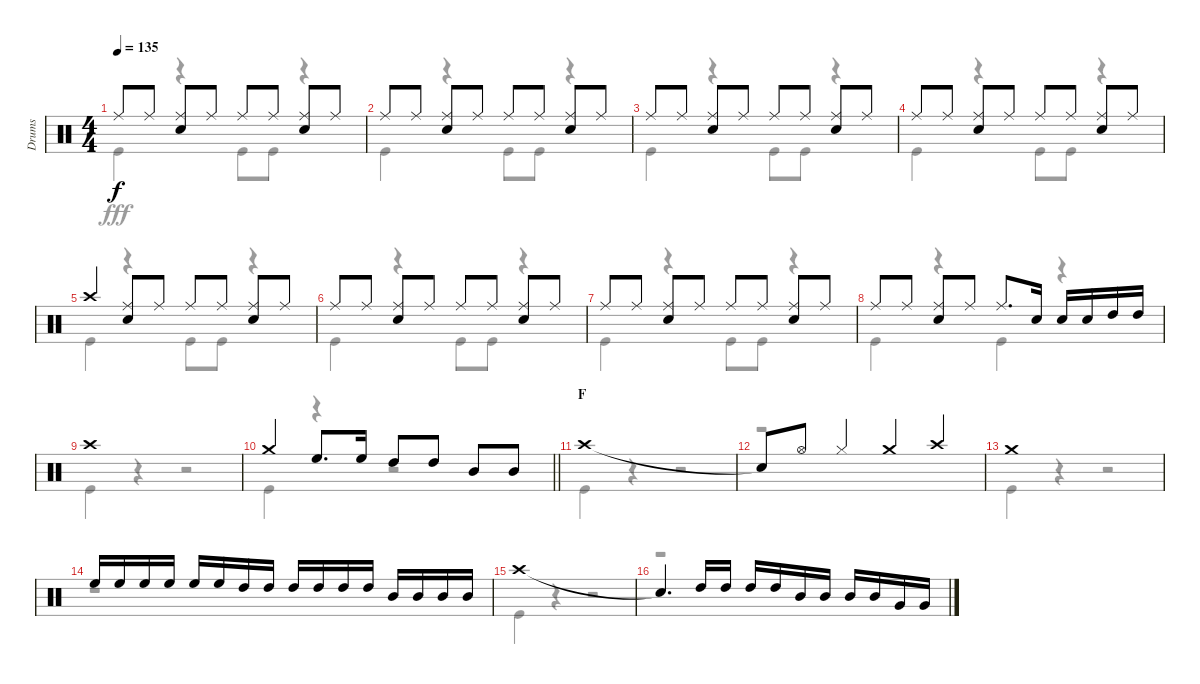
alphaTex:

\track ("Drums" "Drums") {instrument percussion}
\staff {score}
\articulation defaults
\voice
\ts (4 4)
\tempo 135
\clef neutral
\ks c "Ride (middle)".8{dy f} "Ride (middle)".8
("Ride (middle)" "Snare (hit) 2").8 "Ride (middle)".8 "Ride (middle)".8 "Ride (middle)".8 ("Ride (middle)" "Snare (hit) 2").8 "Ride (middle)".8 |
"Ride (middle)".8 "Ride (middle)".8 ("Ride (middle)" "Snare (hit) 2").8 "Ride (middle)".8 "Ride (middle)".8 "Ride (middle)".8 ("Ride (middle)" "Snare (hit) 2").8 "Ride (middle)".8 |
"Ride (middle)".8 "Ride (middle)".8 ("Ride (middle)" "Snare (hit) 2").8 "Ride (middle)".8 "Ride (middle)".8 "Ride (middle)".8 ("Ride (middle)" "Snare (hit) 2").8 "Ride (middle)".8 |
"Ride (middle)".8 "Ride (middle)".8 ("Ride (middle)" "Snare (hit) 2").8 "Ride (middle)".8 "Ride (middle)".8 "Ride (middle)".8 ("Ride (middle)" "Snare (hit) 2").8 "Ride (middle)".8 |
"Crash high (hit)".4 ("Ride (middle)" "Snare (hit) 2").8 "Ride (middle)".8 "Ride (middle)".8 "Ride (middle)".8 ("Ride (middle)" "Snare (hit) 2").8 "Ride (middle)".8 |
"Ride (middle)".8 "Ride (middle)".8 ("Ride (middle)" "Snare (hit) 2").8 "Ride (middle)".8 "Ride (middle)".8 "Ride (middle)".8 ("Ride (middle)" "Snare (hit) 2").8 "Ride (middle)".8 |
"Ride (middle)".8 "Ride (middle)".8 ("Ride (middle)" "Snare (hit) 2").8 "Ride (middle)".8 "Ride (middle)".8 "Ride (middle)".8 ("Ride (middle)" "Snare (hit) 2").8 "Ride (middle)".8 |
"Ride (middle)".8 "Ride (middle)".8 ("Ride (middle)" "Snare (hit) 2").8 "Ride (middle)".8 "Ride (middle)".8{d} "Snare (hit) 2".16 "Snare (hit) 2".16 "Snare (hit) 2".16 "High Tom (hit)".16 "High Tom (hit)".16 |
"Crash high (hit)".1 |
\barLineRight lightlight "Crash medium (hit)".4 "High Floor Tom (hit)".8{d} "High Floor Tom (hit)".16 "High Tom (hit)".8 "High Tom (hit)".8 "Mid Tom (hit)".8 "Mid Tom (hit)".8
|
\section ("" "F")
"Crash high (hit)".1 |
"Snare (hit)"{t}.8 "Hi-Hat (open)".8 "Hi-Hat (closed)".4 "Crash medium (hit)".4 "Crash high (hit)".4 |
"Crash medium (hit)".1 |
"High Floor Tom (hit)".16 "High Floor Tom (hit)".16 "High Floor Tom (hit)".16 "High Floor Tom (hit)".16 "High Floor Tom (hit)".16 "High Floor Tom (hit)".16 "High Tom (hit)".16 "High Tom (hit)".16 "High Tom (hit)".16 "High Tom (hit)".16 "High Tom (hit)".16 "High Tom (hit)".16 "Mid Tom (hit)".16 "Mid Tom (hit)".16 "Mid Tom (hit)".16 "Mid Tom (hit)".16 |
"Crash high (hit)".1 |
"Snare (hit)"{t}.4{d} "High Tom (hit)".16 "High Tom (hit)".16 "High Tom (hit)".16 "High Tom (hit)".16 "Mid Tom (hit)".16 "Mid Tom (hit)".16 "Mid Tom (hit)".16 "Mid Tom (hit)".16 "Very Low Tom (hit)".16 "Very Low Tom (hit)".16
\voice
\clef neutral
\ottava regular
\simile none
\ks c "Kick (hit)".4{dy fff}
r.4 "Kick (hit)".8 "Kick (hit)".8 r.4 |
"Kick (hit)".4 r.4 "Kick (hit)".8 "Kick (hit)".8 r.4 |
"Kick (hit)".4 r.4 "Kick (hit)".8 "Kick (hit)".8 r.4 |
"Kick (hit)".4 r.4 "Kick (hit)".8 "Kick (hit)".8 r.4 |
"Kick (hit)".4 r.4 "Kick (hit)".8 "Kick (hit)".8 r.4 |
"Kick (hit)".4 r.4 "Kick (hit)".8 "Kick (hit)".8 r.4 |
"Kick (hit)".4 r.4 "Kick (hit)".8 "Kick (hit)".8 r.4 |
"Kick (hit)".4 r.4 "Kick (hit)".4 r.4 |
"Kick (hit)".4 r.4 r.2 |
\barLineRight lightlight "Kick (hit)".4
r.4 r.2 |
"Kick (hit)".4 r.4 r.2 |
r.1 |
"Kick (hit)".4 r.4 r.2 |
r.1 |
"Kick (hit)".4 r.4 r.2 |
r.1
